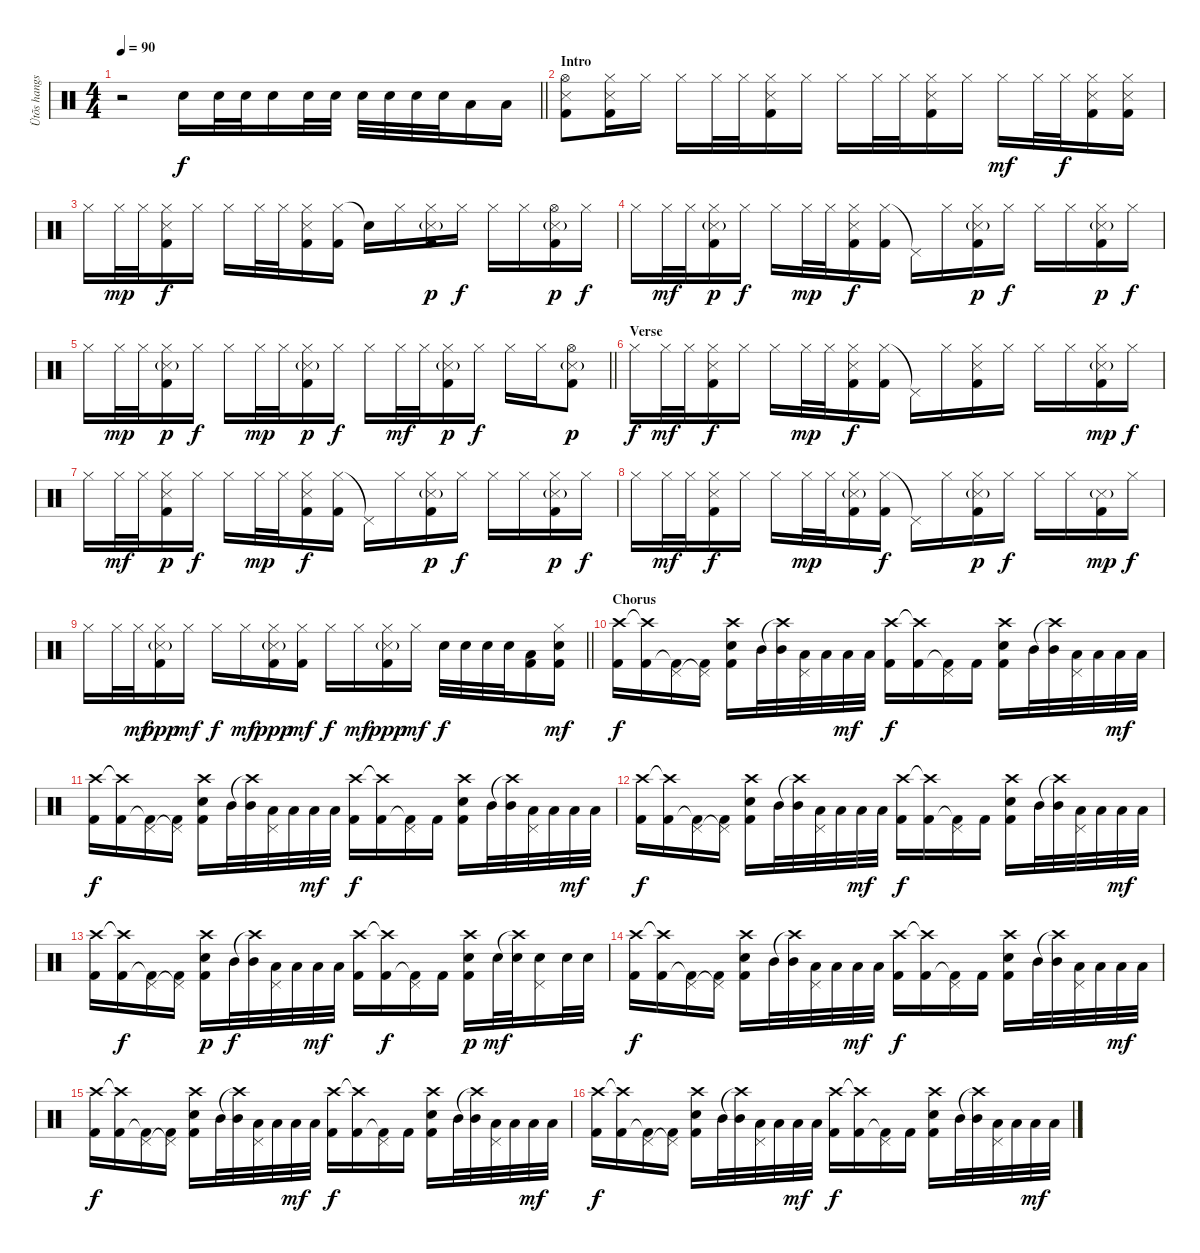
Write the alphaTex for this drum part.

\track ("Ütõs hangszer" "Ütõs hangs") {instrument percussion}
\staff {score}
\articulation defaults
\ts (4 4)
\tempo 90
\clef neutral
\barLineRight lightlight
\ks c
r.2{dy f} "Snare (hit) 2".16 "Snare (hit) 2".32 "Snare (hit) 2".32 "Snare (hit) 2".16 "Snare (hit) 2".32 "Snare (hit) 2".32 "Snare (hit) 2".32 "Snare (hit) 2".32 "Snare (hit) 2".32 "Snare (hit) 2".32 "Low Floor Tom (hit)".16 "Low Tom (hit)".16 |
\section ("" "Intro")
("Hi-Hat (open)" "Snare (side stick) 3" "Kick (hit) 2").8 ("Hi-Hat (closed)" "Snare (side stick) 3" "Kick (hit) 2").16 "Hi-Hat (closed)".16 "Hi-Hat (closed)".16 "Hi-Hat (closed)".32 "Hi-Hat (closed)".32 ("Hi-Hat (closed)" "Snare (side stick) 3" "Kick (hit) 2").16 "Hi-Hat (closed)".16 "Hi-Hat (closed)".16 "Hi-Hat (closed)".32 "Hi-Hat (closed)".32 ("Hi-Hat (closed)" "Snare (side stick) 3" "Kick (hit) 2").16 "Hi-Hat (closed)".16 "Hi-Hat (closed)".16{dy mf} "Hi-Hat (closed)".32 "Hi-Hat (closed)".32{dy f} ("Hi-Hat (closed)" "Snare (side stick) 3" "Kick (hit) 2").16 ("Hi-Hat (closed)" "Snare (side stick) 3" "Kick (hit) 2").16 |
"Hi-Hat (closed)".16 "Hi-Hat (closed)".32{dy mp} "Hi-Hat (closed)".32 ("Hi-Hat (closed)" "Snare (side stick) 3" "Kick (hit) 2").16{dy f} "Hi-Hat (closed)".16 "Hi-Hat (closed)".16 "Hi-Hat (closed)".32 "Hi-Hat (closed)".32 ("Hi-Hat (closed)" "Snare (side stick) 3" "Kick (hit) 2").16 ("Hi-Hat (closed)" "Kick (hit) 2").16 "Snare (hit)"{t}.16 "Hi-Hat (closed)".16 ("Hi-Hat (closed)" "Snare (side stick) 3"{g} "Kick (hit) 2").16{dy p} "Hi-Hat (closed)".16{dy f} "Hi-Hat (closed)".16 "Hi-Hat (closed)".16 ("Hi-Hat (open)" "Snare (side stick) 3"{g} "Kick (hit) 2").16{dy p} "Hi-Hat (closed)".16{dy f} |
"Hi-Hat (closed)".16 "Hi-Hat (closed)".32{dy mf} "Hi-Hat (closed)".32 ("Hi-Hat (closed)" "Snare (side stick) 3"{g} "Kick (hit) 2").16{dy p} "Hi-Hat (closed)".16{dy f} "Hi-Hat (closed)".16 "Hi-Hat (closed)".32{dy mp} "Hi-Hat (closed)".32 ("Hi-Hat (closed)" "Snare (side stick) 3" "Kick (hit) 2").16{dy f} ("Hi-Hat (closed)" "Kick (hit) 2").16 "Pedal Hi-Hat (hit)"{t}.16 "Hi-Hat (closed)".16 ("Hi-Hat (closed)" "Snare (side stick) 3"{g} "Kick (hit) 2").16{dy p} "Hi-Hat (closed)".16{dy f} "Hi-Hat (closed)".16 "Hi-Hat (closed)".16 ("Hi-Hat (closed)" "Snare (side stick) 3"{g} "Kick (hit) 2").16{dy p} "Hi-Hat (closed)".16{dy f} |
\barLineRight lightlight "Hi-Hat (closed)".16 "Hi-Hat (closed)".32{dy mp} "Hi-Hat (closed)".32
("Hi-Hat (closed)" "Snare (side stick) 3"{g} "Kick (hit) 2").16{dy p} "Hi-Hat (closed)".16{dy f} "Hi-Hat (closed)".16 "Hi-Hat (closed)".32{dy mp} "Hi-Hat (closed)".32 ("Hi-Hat (closed)" "Snare (side stick) 3"{g} "Kick (hit) 2").16{dy p} "Hi-Hat (closed)".16{dy f} "Hi-Hat (closed)".16 "Hi-Hat (closed)".32{dy mf} "Hi-Hat (closed)".32 ("Hi-Hat (closed)" "Snare (side stick) 3"{g} "Kick (hit) 2").16{dy p} "Hi-Hat (closed)".16{dy f} "Hi-Hat (closed)".16 "Hi-Hat (closed)".16 ("Hi-Hat (open)" "Snare (side stick) 3"{g} "Kick (hit) 2").8{dy p} |
\section ("" "Verse")
"Hi-Hat (closed)".16{dy f} "Hi-Hat (closed)".32{dy mf} "Hi-Hat (closed)".32 ("Hi-Hat (closed)" "Snare (side stick) 3" "Kick (hit) 2").16{dy f} "Hi-Hat (closed)".16 "Hi-Hat (closed)".16 "Hi-Hat (closed)".32{dy mp} "Hi-Hat (closed)".32 ("Hi-Hat (closed)" "Snare (side stick) 3" "Kick (hit) 2").16{dy f} ("Hi-Hat (closed)" "Kick (hit) 2").16 "Pedal Hi-Hat (hit)"{t}.16 "Hi-Hat (closed)".16 ("Hi-Hat (closed)" "Snare (side stick) 3" "Kick (hit) 2").16 "Hi-Hat (closed)".16 "Hi-Hat (closed)".16 "Hi-Hat (closed)".16 ("Hi-Hat (closed)" "Snare (side stick) 3"{g} "Kick (hit) 2").16{dy mp} "Hi-Hat (closed)".16{dy f} |
"Hi-Hat (closed)".16 "Hi-Hat (closed)".32{dy mf} "Hi-Hat (closed)".32 ("Hi-Hat (closed)" "Snare (side stick) 3" "Kick (hit) 2").16{dy p} "Hi-Hat (closed)".16{dy f} "Hi-Hat (closed)".16 "Hi-Hat (closed)".32{dy mp} "Hi-Hat (closed)".32 ("Hi-Hat (closed)" "Snare (side stick) 3" "Kick (hit) 2").16{dy f} ("Hi-Hat (closed)" "Kick (hit) 2").16 "Pedal Hi-Hat (hit)"{t}.16 "Hi-Hat (closed)".16 ("Hi-Hat (closed)" "Snare (side stick) 3"{g} "Kick (hit) 2").16{dy p} "Hi-Hat (closed)".16{dy f} "Hi-Hat (closed)".16 "Hi-Hat (closed)".16 ("Hi-Hat (closed)" "Snare (side stick) 3"{g} "Kick (hit) 2").16{dy p} "Hi-Hat (closed)".16{dy f} |
"Hi-Hat (closed)".16 "Hi-Hat (closed)".32{dy mf} "Hi-Hat (closed)".32 ("Hi-Hat (closed)" "Snare (side stick) 3" "Kick (hit) 2").16{dy f} "Hi-Hat (closed)".16 "Hi-Hat (closed)".16 "Hi-Hat (closed)".32{dy mp} "Hi-Hat (closed)".32 ("Hi-Hat (closed)" "Snare (side stick) 3"{g} "Kick (hit) 2").16 ("Hi-Hat (closed)" "Kick (hit) 2").16{dy f} "Pedal Hi-Hat (hit)"{t}.16 "Hi-Hat (closed)".16 ("Hi-Hat (closed)" "Snare (side stick) 3"{g} "Kick (hit) 2").16{dy p} "Hi-Hat (closed)".16{dy f} "Hi-Hat (closed)".16 "Hi-Hat (closed)".16 ("Snare (side stick) 3"{g} "Kick (hit) 2").16{dy mp} "Hi-Hat (closed)".16{dy f} |
\barLineRight lightlight "Hi-Hat (closed)".16 "Hi-Hat (closed)".32 "Hi-Hat (closed)".32{dy mf}
("Hi-Hat (closed)" "Snare (side stick) 3"{g} "Kick (hit) 2").16{dy ppp} "Hi-Hat (closed)".16{dy mf} "Hi-Hat (closed)".16{dy f} "Hi-Hat (closed)".16{dy mf} ("Hi-Hat (closed)" "Snare (side stick) 3"{g} "Kick (hit) 2").16{dy ppp} ("Hi-Hat (closed)" "Kick (hit) 2").16{dy mf} "Hi-Hat (closed)".16{dy f} "Hi-Hat (closed)".16{dy mf} ("Hi-Hat (closed)" "Snare (side stick) 3"{g} "Kick (hit) 2").16{dy ppp} "Hi-Hat (closed)".16{dy mf} "Snare (hit) 2".32{dy f} "Snare (hit) 2".32 "Snare (hit) 2".32 "Snare (hit) 2".32 ("Low Floor Tom (hit)" "Kick (hit) 2").16 ("Hi-Hat (closed)" "Snare (hit) 2" "Kick (hit) 2").16{dy mf} |
\section ("" "Chorus")
("Crash high (hit)" "Kick (hit) 2").16{dy f} ("Crash high (hit)"{t} "Kick (hit) 2").16 ("Pedal Hi-Hat (hit)" "Kick (hit) 2"{t}).16 ("Pedal Hi-Hat (hit)"{t} "Kick (hit) 2").16 ("Crash high (hit)" "Snare (hit) 2" "Kick (hit) 2").16 "Mid Tom (hit)".32 ("Crash high (hit)"{t} "Mid Tom (hit)").32 ("Pedal Hi-Hat (hit)" "Low Tom (hit)").32 "Low Tom (hit)".32 "Low Tom (hit)".32{dy mf} "Low Tom (hit)".32 ("Crash high (hit)" "Kick (hit) 2").16{dy f} ("Crash high (hit)"{t} "Kick (hit) 2").16 ("Pedal Hi-Hat (hit)" "Kick (hit) 2"{t}).16 "Kick (hit) 2".16 ("Crash high (hit)" "Snare (hit) 2" "Kick (hit) 2").16 "Mid Tom (hit)".32 ("Crash high (hit)"{t} "Mid Tom (hit)").32 ("Pedal Hi-Hat (hit)" "Low Tom (hit)").32 "Low Tom (hit)".32 "Low Tom (hit)".32{dy mf} "Low Tom (hit)".32 |
("Crash high (hit)" "Kick (hit) 2").16{dy f} ("Crash high (hit)"{t} "Kick (hit) 2").16 ("Pedal Hi-Hat (hit)" "Kick (hit) 2"{t}).16 ("Pedal Hi-Hat (hit)"{t} "Kick (hit) 2").16 ("Crash high (hit)" "Snare (hit) 2" "Kick (hit) 2").16 "Mid Tom (hit)".32 ("Crash high (hit)"{t} "Mid Tom (hit)").32 ("Pedal Hi-Hat (hit)" "Low Tom (hit)").32 "Low Tom (hit)".32 "Low Tom (hit)".32{dy mf} "Low Tom (hit)".32 ("Crash high (hit)" "Kick (hit) 2").16{dy f} ("Crash high (hit)"{t} "Kick (hit) 2").16 ("Pedal Hi-Hat (hit)" "Kick (hit) 2"{t}).16 "Kick (hit) 2".16 ("Crash high (hit)" "Snare (hit) 2" "Kick (hit) 2").16 "Mid Tom (hit)".32 ("Crash high (hit)"{t} "Mid Tom (hit)").32 ("Pedal Hi-Hat (hit)" "Low Tom (hit)").32 "Low Tom (hit)".32 "Low Tom (hit)".32{dy mf} "Low Tom (hit)".32 |
("Crash high (hit)" "Kick (hit) 2").16{dy f} ("Crash high (hit)"{t} "Kick (hit) 2").16 ("Pedal Hi-Hat (hit)" "Kick (hit) 2"{t}).16 ("Pedal Hi-Hat (hit)"{t} "Kick (hit) 2").16 ("Crash high (hit)" "Snare (hit) 2" "Kick (hit) 2").16 "Mid Tom (hit)".32 ("Crash high (hit)"{t} "Mid Tom (hit)").32 ("Pedal Hi-Hat (hit)" "Low Tom (hit)").32 "Low Tom (hit)".32 "Low Tom (hit)".32{dy mf} "Low Tom (hit)".32 ("Crash high (hit)" "Kick (hit) 2").16{dy f} ("Crash high (hit)"{t} "Kick (hit) 2").16 ("Pedal Hi-Hat (hit)" "Kick (hit) 2"{t}).16 "Kick (hit) 2".16 ("Crash high (hit)" "Snare (hit) 2" "Kick (hit) 2").16 "Mid Tom (hit)".32 ("Crash high (hit)"{t} "Mid Tom (hit)").32 ("Pedal Hi-Hat (hit)" "Low Tom (hit)").32 "Low Tom (hit)".32 "Low Tom (hit)".32{dy mf} "Low Tom (hit)".32 |
("Crash high (hit)" "Kick (hit) 2").16 ("Crash high (hit)"{t} "Kick (hit) 2").16{dy f} ("Pedal Hi-Hat (hit)" "Kick (hit) 2"{t}).16 ("Pedal Hi-Hat (hit)"{t} "Kick (hit) 2").16 ("Crash high (hit)" "Snare (hit) 2" "Kick (hit) 2").16{dy p} "Mid Tom (hit)".32{dy f} ("Crash high (hit)"{t} "Mid Tom (hit)").32 ("Pedal Hi-Hat (hit)" "Low Tom (hit)").32 "Low Tom (hit)".32 "Low Tom (hit)".32{dy mf} "Low Tom (hit)".32 ("Crash high (hit)" "Kick (hit) 2").16 ("Crash high (hit)"{t} "Kick (hit) 2").16{dy f} ("Pedal Hi-Hat (hit)" "Kick (hit) 2"{t}).16 "Kick (hit) 2".16 ("Crash high (hit)" "Snare (hit) 2" "Kick (hit) 2").16{dy p} "Snare (hit) 2".32{dy mf} ("Crash high (hit)"{t} "Snare (hit) 2").32 ("Pedal Hi-Hat (hit)" "Snare (hit) 2").16 "Snare (hit) 2".32 "Snare (hit) 2".32 |
("Crash high (hit)" "Kick (hit) 2").16{dy f} ("Crash high (hit)"{t} "Kick (hit) 2").16 ("Pedal Hi-Hat (hit)" "Kick (hit) 2"{t}).16 ("Pedal Hi-Hat (hit)"{t} "Kick (hit) 2").16 ("Crash high (hit)" "Snare (hit) 2" "Kick (hit) 2").16 "Mid Tom (hit)".32 ("Crash high (hit)"{t} "Mid Tom (hit)").32 ("Pedal Hi-Hat (hit)" "Low Tom (hit)").32 "Low Tom (hit)".32 "Low Tom (hit)".32{dy mf} "Low Tom (hit)".32 ("Crash high (hit)" "Kick (hit) 2").16{dy f} ("Crash high (hit)"{t} "Kick (hit) 2").16 ("Pedal Hi-Hat (hit)" "Kick (hit) 2"{t}).16 "Kick (hit) 2".16 ("Crash high (hit)" "Snare (hit) 2" "Kick (hit) 2").16 "Mid Tom (hit)".32 ("Crash high (hit)"{t} "Mid Tom (hit)").32 ("Pedal Hi-Hat (hit)" "Low Tom (hit)").32 "Low Tom (hit)".32 "Low Tom (hit)".32{dy mf} "Low Tom (hit)".32 |
("Crash high (hit)" "Kick (hit) 2").16{dy f} ("Crash high (hit)"{t} "Kick (hit) 2").16 ("Pedal Hi-Hat (hit)" "Kick (hit) 2"{t}).16 ("Pedal Hi-Hat (hit)"{t} "Kick (hit) 2").16 ("Crash high (hit)" "Snare (hit) 2" "Kick (hit) 2").16 "Mid Tom (hit)".32 ("Crash high (hit)"{t} "Mid Tom (hit)").32 ("Pedal Hi-Hat (hit)" "Low Tom (hit)").32 "Low Tom (hit)".32 "Low Tom (hit)".32{dy mf} "Low Tom (hit)".32 ("Crash high (hit)" "Kick (hit) 2").16{dy f} ("Crash high (hit)"{t} "Kick (hit) 2").16 ("Pedal Hi-Hat (hit)" "Kick (hit) 2"{t}).16 "Kick (hit) 2".16 ("Crash high (hit)" "Snare (hit) 2" "Kick (hit) 2").16 "Mid Tom (hit)".32 ("Crash high (hit)"{t} "Mid Tom (hit)").32 ("Pedal Hi-Hat (hit)" "Low Tom (hit)").32 "Low Tom (hit)".32 "Low Tom (hit)".32{dy mf} "Low Tom (hit)".32 |
("Crash high (hit)" "Kick (hit) 2").16{dy f} ("Crash high (hit)"{t} "Kick (hit) 2").16 ("Pedal Hi-Hat (hit)" "Kick (hit) 2"{t}).16 ("Pedal Hi-Hat (hit)"{t} "Kick (hit) 2").16 ("Crash high (hit)" "Snare (hit) 2" "Kick (hit) 2").16 "Mid Tom (hit)".32 ("Crash high (hit)"{t} "Mid Tom (hit)").32 ("Pedal Hi-Hat (hit)" "Low Tom (hit)").32 "Low Tom (hit)".32 "Low Tom (hit)".32{dy mf} "Low Tom (hit)".32 ("Crash high (hit)" "Kick (hit) 2").16{dy f} ("Crash high (hit)"{t} "Kick (hit) 2").16 ("Pedal Hi-Hat (hit)" "Kick (hit) 2"{t}).16 "Kick (hit) 2".16 ("Crash high (hit)" "Snare (hit) 2" "Kick (hit) 2").16 "Mid Tom (hit)".32 ("Crash high (hit)"{t} "Mid Tom (hit)").32 ("Pedal Hi-Hat (hit)" "Low Tom (hit)").32 "Low Tom (hit)".32 "Low Tom (hit)".32{dy mf} "Low Tom (hit)".32
